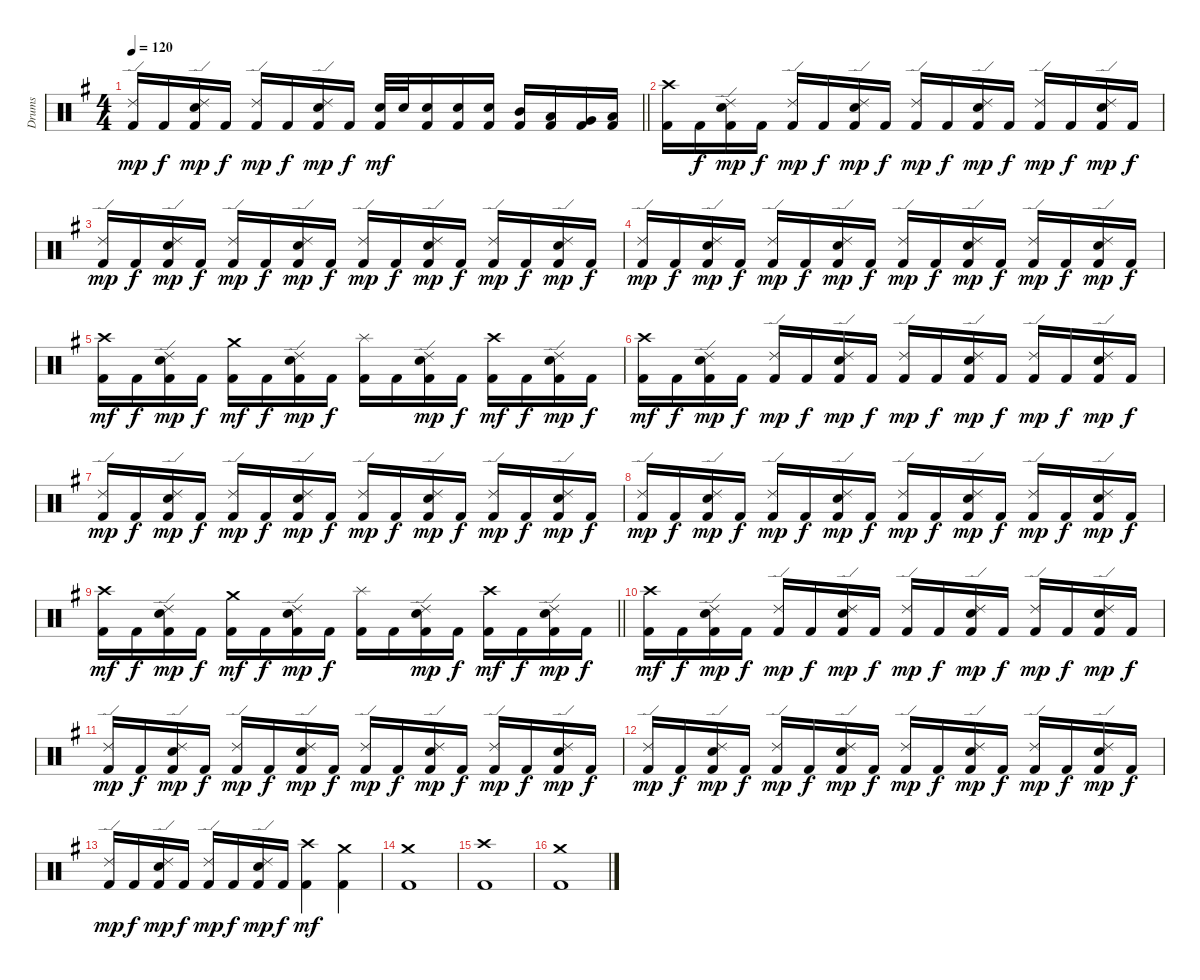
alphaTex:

\track ("Drums" "Drums") {instrument percussion}
\staff {score}
\articulation defaults
\ts (4 4)
\tempo 120
\clef neutral
\barLineRight lightlight
\ks eminor
("Ride (edge) 2" "Kick (hit) 2").16{dy mp} "Kick (hit) 2".16{dy f} ("Ride (edge) 2" "Electric Snare (hit)" "Kick (hit) 2").16{dy mp} "Kick (hit) 2".16{dy f} ("Ride (edge) 2" "Kick (hit) 2").16{dy mp} "Kick (hit) 2".16{dy f} ("Ride (edge) 2" "Electric Snare (hit)" "Kick (hit) 2").16{dy mp} "Kick (hit) 2".16{dy f} ("Electric Snare (hit)" "Kick (hit) 2").32{dy mf} "Electric Snare (hit)".32 ("Electric Snare (hit)" "Kick (hit) 2").16 ("Electric Snare (hit)" "Kick (hit) 2").16 ("Electric Snare (hit)" "Kick (hit) 2").16 ("Mid Tom (hit)" "Kick (hit) 2").16 ("Low Tom (hit)" "Kick (hit) 2").16 ("Very Low Tom (hit)" "Kick (hit) 2").16 ("Low Floor Tom (hit)" "Kick (hit) 2").16 |
\section ("" "")
("Crash high (hit)" "Kick (hit) 2").16 "Kick (hit) 2".16{dy f} ("Ride (edge) 2" "Electric Snare (hit)" "Kick (hit) 2").16{dy mp} "Kick (hit) 2".16{dy f} ("Ride (edge) 2" "Kick (hit) 2").16{dy mp} "Kick (hit) 2".16{dy f} ("Ride (edge) 2" "Electric Snare (hit)" "Kick (hit) 2").16{dy mp} "Kick (hit) 2".16{dy f} ("Ride (edge) 2" "Kick (hit) 2").16{dy mp} "Kick (hit) 2".16{dy f} ("Ride (edge) 2" "Electric Snare (hit)" "Kick (hit) 2").16{dy mp} "Kick (hit) 2".16{dy f} ("Ride (edge) 2" "Kick (hit) 2").16{dy mp} "Kick (hit) 2".16{dy f} ("Ride (edge) 2" "Electric Snare (hit)" "Kick (hit) 2").16{dy mp} "Kick (hit) 2".16{dy f} |
("Ride (edge) 2" "Kick (hit) 2").16{dy mp} "Kick (hit) 2".16{dy f} ("Ride (edge) 2" "Electric Snare (hit)" "Kick (hit) 2").16{dy mp} "Kick (hit) 2".16{dy f} ("Ride (edge) 2" "Kick (hit) 2").16{dy mp} "Kick (hit) 2".16{dy f} ("Ride (edge) 2" "Electric Snare (hit)" "Kick (hit) 2").16{dy mp} "Kick (hit) 2".16{dy f} ("Ride (edge) 2" "Kick (hit) 2").16{dy mp} "Kick (hit) 2".16{dy f} ("Ride (edge) 2" "Electric Snare (hit)" "Kick (hit) 2").16{dy mp} "Kick (hit) 2".16{dy f} ("Ride (edge) 2" "Kick (hit) 2").16{dy mp} "Kick (hit) 2".16{dy f} ("Ride (edge) 2" "Electric Snare (hit)" "Kick (hit) 2").16{dy mp} "Kick (hit) 2".16{dy f} |
("Ride (edge) 2" "Kick (hit) 2").16{dy mp} "Kick (hit) 2".16{dy f} ("Ride (edge) 2" "Electric Snare (hit)" "Kick (hit) 2").16{dy mp} "Kick (hit) 2".16{dy f} ("Ride (edge) 2" "Kick (hit) 2").16{dy mp} "Kick (hit) 2".16{dy f} ("Ride (edge) 2" "Electric Snare (hit)" "Kick (hit) 2").16{dy mp} "Kick (hit) 2".16{dy f} ("Ride (edge) 2" "Kick (hit) 2").16{dy mp} "Kick (hit) 2".16{dy f} ("Ride (edge) 2" "Electric Snare (hit)" "Kick (hit) 2").16{dy mp} "Kick (hit) 2".16{dy f} ("Ride (edge) 2" "Kick (hit) 2").16{dy mp} "Kick (hit) 2".16{dy f} ("Ride (edge) 2" "Electric Snare (hit)" "Kick (hit) 2").16{dy mp} "Kick (hit) 2".16{dy f} |
("Crash high (hit)" "Kick (hit) 2").16{dy mf} "Kick (hit) 2".16{dy f} ("Ride (edge) 2" "Electric Snare (hit)" "Kick (hit) 2").16{dy mp} "Kick (hit) 2".16{dy f} ("Crash medium (hit)" "Kick (hit) 2").16{dy mf} "Kick (hit) 2".16{dy f} ("Ride (edge) 2" "Electric Snare (hit)" "Kick (hit) 2").16{dy mp} "Kick (hit) 2".16{dy f} ("Splash (hit)" "Kick (hit) 2").16 "Kick (hit) 2".16 ("Ride (edge) 2" "Electric Snare (hit)" "Kick (hit) 2").16{dy mp} "Kick (hit) 2".16{dy f} ("Crash high (hit)" "Kick (hit) 2").16{dy mf} "Kick (hit) 2".16{dy f} ("Ride (edge) 2" "Electric Snare (hit)" "Kick (hit) 2").16{dy mp} "Kick (hit) 2".16{dy f} |
("Crash high (hit)" "Kick (hit) 2").16{dy mf} "Kick (hit) 2".16{dy f} ("Ride (edge) 2" "Electric Snare (hit)" "Kick (hit) 2").16{dy mp} "Kick (hit) 2".16{dy f} ("Ride (edge) 2" "Kick (hit) 2").16{dy mp} "Kick (hit) 2".16{dy f} ("Ride (edge) 2" "Electric Snare (hit)" "Kick (hit) 2").16{dy mp} "Kick (hit) 2".16{dy f} ("Ride (edge) 2" "Kick (hit) 2").16{dy mp} "Kick (hit) 2".16{dy f} ("Ride (edge) 2" "Electric Snare (hit)" "Kick (hit) 2").16{dy mp} "Kick (hit) 2".16{dy f} ("Ride (edge) 2" "Kick (hit) 2").16{dy mp} "Kick (hit) 2".16{dy f} ("Ride (edge) 2" "Electric Snare (hit)" "Kick (hit) 2").16{dy mp} "Kick (hit) 2".16{dy f} |
("Ride (edge) 2" "Kick (hit) 2").16{dy mp} "Kick (hit) 2".16{dy f} ("Ride (edge) 2" "Electric Snare (hit)" "Kick (hit) 2").16{dy mp} "Kick (hit) 2".16{dy f} ("Ride (edge) 2" "Kick (hit) 2").16{dy mp} "Kick (hit) 2".16{dy f} ("Ride (edge) 2" "Electric Snare (hit)" "Kick (hit) 2").16{dy mp} "Kick (hit) 2".16{dy f} ("Ride (edge) 2" "Kick (hit) 2").16{dy mp} "Kick (hit) 2".16{dy f} ("Ride (edge) 2" "Electric Snare (hit)" "Kick (hit) 2").16{dy mp} "Kick (hit) 2".16{dy f} ("Ride (edge) 2" "Kick (hit) 2").16{dy mp} "Kick (hit) 2".16{dy f} ("Ride (edge) 2" "Electric Snare (hit)" "Kick (hit) 2").16{dy mp} "Kick (hit) 2".16{dy f} |
("Ride (edge) 2" "Kick (hit) 2").16{dy mp} "Kick (hit) 2".16{dy f} ("Ride (edge) 2" "Electric Snare (hit)" "Kick (hit) 2").16{dy mp} "Kick (hit) 2".16{dy f} ("Ride (edge) 2" "Kick (hit) 2").16{dy mp} "Kick (hit) 2".16{dy f} ("Ride (edge) 2" "Electric Snare (hit)" "Kick (hit) 2").16{dy mp} "Kick (hit) 2".16{dy f} ("Ride (edge) 2" "Kick (hit) 2").16{dy mp} "Kick (hit) 2".16{dy f} ("Ride (edge) 2" "Electric Snare (hit)" "Kick (hit) 2").16{dy mp} "Kick (hit) 2".16{dy f} ("Ride (edge) 2" "Kick (hit) 2").16{dy mp} "Kick (hit) 2".16{dy f} ("Ride (edge) 2" "Electric Snare (hit)" "Kick (hit) 2").16{dy mp} "Kick (hit) 2".16{dy f} |
\barLineRight lightlight
("Crash high (hit)" "Kick (hit) 2").16{dy mf} "Kick (hit) 2".16{dy f} ("Ride (edge) 2" "Electric Snare (hit)" "Kick (hit) 2").16{dy mp} "Kick (hit) 2".16{dy f} ("Crash medium (hit)" "Kick (hit) 2").16{dy mf} "Kick (hit) 2".16{dy f} ("Ride (edge) 2" "Electric Snare (hit)" "Kick (hit) 2").16{dy mp} "Kick (hit) 2".16{dy f} ("Splash (hit)" "Kick (hit) 2").16 "Kick (hit) 2".16 ("Ride (edge) 2" "Electric Snare (hit)" "Kick (hit) 2").16{dy mp} "Kick (hit) 2".16{dy f} ("Crash high (hit)" "Kick (hit) 2").16{dy mf} "Kick (hit) 2".16{dy f} ("Ride (edge) 2" "Electric Snare (hit)" "Kick (hit) 2").16{dy mp} "Kick (hit) 2".16{dy f} |
("Crash high (hit)" "Kick (hit) 2").16{dy mf} "Kick (hit) 2".16{dy f} ("Ride (edge) 2" "Electric Snare (hit)" "Kick (hit) 2").16{dy mp} "Kick (hit) 2".16{dy f} ("Ride (edge) 2" "Kick (hit) 2").16{dy mp} "Kick (hit) 2".16{dy f} ("Ride (edge) 2" "Electric Snare (hit)" "Kick (hit) 2").16{dy mp} "Kick (hit) 2".16{dy f} ("Ride (edge) 2" "Kick (hit) 2").16{dy mp} "Kick (hit) 2".16{dy f} ("Ride (edge) 2" "Electric Snare (hit)" "Kick (hit) 2").16{dy mp} "Kick (hit) 2".16{dy f} ("Ride (edge) 2" "Kick (hit) 2").16{dy mp} "Kick (hit) 2".16{dy f} ("Ride (edge) 2" "Electric Snare (hit)" "Kick (hit) 2").16{dy mp} "Kick (hit) 2".16{dy f} |
("Ride (edge) 2" "Kick (hit) 2").16{dy mp} "Kick (hit) 2".16{dy f} ("Ride (edge) 2" "Electric Snare (hit)" "Kick (hit) 2").16{dy mp} "Kick (hit) 2".16{dy f} ("Ride (edge) 2" "Kick (hit) 2").16{dy mp} "Kick (hit) 2".16{dy f} ("Ride (edge) 2" "Electric Snare (hit)" "Kick (hit) 2").16{dy mp} "Kick (hit) 2".16{dy f} ("Ride (edge) 2" "Kick (hit) 2").16{dy mp} "Kick (hit) 2".16{dy f} ("Ride (edge) 2" "Electric Snare (hit)" "Kick (hit) 2").16{dy mp} "Kick (hit) 2".16{dy f} ("Ride (edge) 2" "Kick (hit) 2").16{dy mp} "Kick (hit) 2".16{dy f} ("Ride (edge) 2" "Electric Snare (hit)" "Kick (hit) 2").16{dy mp} "Kick (hit) 2".16{dy f} |
("Ride (edge) 2" "Kick (hit) 2").16{dy mp} "Kick (hit) 2".16{dy f} ("Ride (edge) 2" "Electric Snare (hit)" "Kick (hit) 2").16{dy mp} "Kick (hit) 2".16{dy f} ("Ride (edge) 2" "Kick (hit) 2").16{dy mp} "Kick (hit) 2".16{dy f} ("Ride (edge) 2" "Electric Snare (hit)" "Kick (hit) 2").16{dy mp} "Kick (hit) 2".16{dy f} ("Ride (edge) 2" "Kick (hit) 2").16{dy mp} "Kick (hit) 2".16{dy f} ("Ride (edge) 2" "Electric Snare (hit)" "Kick (hit) 2").16{dy mp} "Kick (hit) 2".16{dy f} ("Ride (edge) 2" "Kick (hit) 2").16{dy mp} "Kick (hit) 2".16{dy f} ("Ride (edge) 2" "Electric Snare (hit)" "Kick (hit) 2").16{dy mp} "Kick (hit) 2".16{dy f} |
("Ride (edge) 2" "Kick (hit) 2").16{dy mp} "Kick (hit) 2".16{dy f} ("Ride (edge) 2" "Electric Snare (hit)" "Kick (hit) 2").16{dy mp} "Kick (hit) 2".16{dy f} ("Ride (edge) 2" "Kick (hit) 2").16{dy mp} "Kick (hit) 2".16{dy f} ("Ride (edge) 2" "Electric Snare (hit)" "Kick (hit) 2").16{dy mp} "Kick (hit) 2".16{dy f} ("Crash high (hit)" "Kick (hit) 2").4{dy mf} ("Crash medium (hit)" "Kick (hit) 2").4 |
("Crash medium (hit)" "Kick (hit) 2").1 |
("Crash high (hit)" "Kick (hit) 2").1 |
("Crash medium (hit)" "Kick (hit) 2").1
